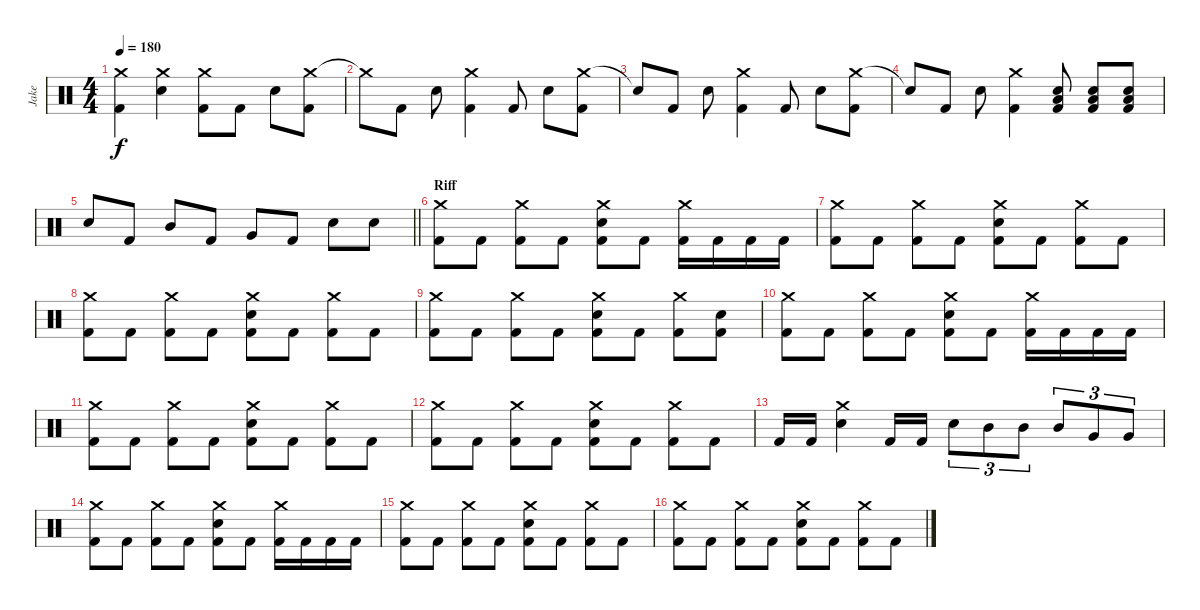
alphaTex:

\track ("Jake" "Jake") {instrument percussion}
\staff {score}
\articulation defaults
\ts (4 4)
\tempo 180
\clef neutral
\ks c
("Crash medium (hit)" "Kick (hit) 2").4{dy f} ("Crash medium (hit)" "Electric Snare (hit)").4 ("Crash medium (hit)" "Kick (hit) 2").8 "Kick (hit) 2".8 "Electric Snare (hit)".8 ("Crash medium (hit)" "Kick (hit) 2").8 |
"Crash medium (hit)"{t}.8 "Kick (hit) 2".8 "Electric Snare (hit)".8 ("Crash medium (hit)" "Kick (hit) 2").4 "Kick (hit) 2".8 "Electric Snare (hit)".8 ("Crash medium (hit)" "Kick (hit) 2").8 |
"Snare (hit)"{t}.8 "Kick (hit) 2".8 "Electric Snare (hit)".8 ("Crash medium (hit)" "Kick (hit) 2").4 "Kick (hit) 2".8 "Electric Snare (hit)".8 ("Crash medium (hit)" "Kick (hit) 2").8 |
"Snare (hit)"{t}.8 "Kick (hit) 2".8 "Electric Snare (hit)".8 ("Crash medium (hit)" "Kick (hit) 2").4 ("Electric Snare (hit)" "Low Floor Tom (hit)" "Kick (hit) 2").8 ("Electric Snare (hit)" "Low Floor Tom (hit)" "Kick (hit) 2").8 ("Electric Snare (hit)" "Low Floor Tom (hit)" "Kick (hit) 2").8 |
\barLineRight lightlight "Electric Snare (hit)".8 "Kick (hit) 2".8 "Mid Tom (hit)".8 "Kick (hit) 2".8 "Very Low Tom (hit)".8 "Kick (hit) 2".8 "Electric Snare (hit)".8 "Electric Snare (hit)".8
|
\section ("" "Riff")
("Crash medium (hit)" "Kick (hit) 2").8 "Kick (hit) 2".8 ("Crash medium (hit)" "Kick (hit) 2").8 "Kick (hit) 2".8 ("Crash medium (hit)" "Electric Snare (hit)" "Kick (hit) 2").8 "Kick (hit) 2".8 ("Crash medium (hit)" "Kick (hit) 2").16 "Kick (hit) 2".16 "Kick (hit) 2".16 "Kick (hit) 2".16 |
("Crash medium (hit)" "Kick (hit) 2").8 "Kick (hit) 2".8 ("Crash medium (hit)" "Kick (hit) 2").8 "Kick (hit) 2".8 ("Crash medium (hit)" "Electric Snare (hit)" "Kick (hit) 2").8 "Kick (hit) 2".8 ("Crash medium (hit)" "Kick (hit) 2").8 "Kick (hit) 2".8 |
("Crash medium (hit)" "Kick (hit) 2").8 "Kick (hit) 2".8 ("Crash medium (hit)" "Kick (hit) 2").8 "Kick (hit) 2".8 ("Crash medium (hit)" "Electric Snare (hit)" "Kick (hit) 2").8 "Kick (hit) 2".8 ("Crash medium (hit)" "Kick (hit) 2").8 "Kick (hit) 2".8 |
("Crash medium (hit)" "Kick (hit) 2").8 "Kick (hit) 2".8 ("Crash medium (hit)" "Kick (hit) 2").8 "Kick (hit) 2".8 ("Crash medium (hit)" "Electric Snare (hit)" "Kick (hit) 2").8 "Kick (hit) 2".8 ("Crash medium (hit)" "Kick (hit) 2").8 ("Electric Snare (hit)" "Kick (hit) 2").8 |
("Crash medium (hit)" "Kick (hit) 2").8 "Kick (hit) 2".8 ("Crash medium (hit)" "Kick (hit) 2").8 "Kick (hit) 2".8 ("Crash medium (hit)" "Electric Snare (hit)" "Kick (hit) 2").8 "Kick (hit) 2".8 ("Crash medium (hit)" "Kick (hit) 2").16 "Kick (hit) 2".16 "Kick (hit) 2".16 "Kick (hit) 2".16 |
("Crash medium (hit)" "Kick (hit) 2").8 "Kick (hit) 2".8 ("Crash medium (hit)" "Kick (hit) 2").8 "Kick (hit) 2".8 ("Crash medium (hit)" "Electric Snare (hit)" "Kick (hit) 2").8 "Kick (hit) 2".8 ("Crash medium (hit)" "Kick (hit) 2").8 "Kick (hit) 2".8 |
("Crash medium (hit)" "Kick (hit) 2").8 "Kick (hit) 2".8 ("Crash medium (hit)" "Kick (hit) 2").8 "Kick (hit) 2".8 ("Crash medium (hit)" "Electric Snare (hit)" "Kick (hit) 2").8 "Kick (hit) 2".8 ("Crash medium (hit)" "Kick (hit) 2").8 "Kick (hit) 2".8 |
"Kick (hit) 2".16 "Kick (hit) 2".16 ("Crash medium (hit)" "Electric Snare (hit)").4 "Kick (hit) 2".16 "Kick (hit) 2".16 "Electric Snare (hit)".8{tu (3 2)} "Mid Tom (hit)".8{tu (3 2)} "Mid Tom (hit)".8{tu (3 2)} "Mid Tom (hit)".8{tu (3 2)} "Very Low Tom (hit)".8{tu (3 2)} "Very Low Tom (hit)".8{tu (3 2)} |
("Crash medium (hit)" "Kick (hit) 2").8 "Kick (hit) 2".8 ("Crash medium (hit)" "Kick (hit) 2").8 "Kick (hit) 2".8 ("Crash medium (hit)" "Electric Snare (hit)" "Kick (hit) 2").8 "Kick (hit) 2".8 ("Crash medium (hit)" "Kick (hit) 2").16 "Kick (hit) 2".16 "Kick (hit) 2".16 "Kick (hit) 2".16 |
("Crash medium (hit)" "Kick (hit) 2").8 "Kick (hit) 2".8 ("Crash medium (hit)" "Kick (hit) 2").8 "Kick (hit) 2".8 ("Crash medium (hit)" "Electric Snare (hit)" "Kick (hit) 2").8 "Kick (hit) 2".8 ("Crash medium (hit)" "Kick (hit) 2").8 "Kick (hit) 2".8 |
("Crash medium (hit)" "Kick (hit) 2").8 "Kick (hit) 2".8 ("Crash medium (hit)" "Kick (hit) 2").8 "Kick (hit) 2".8 ("Crash medium (hit)" "Electric Snare (hit)" "Kick (hit) 2").8 "Kick (hit) 2".8 ("Crash medium (hit)" "Kick (hit) 2").8 "Kick (hit) 2".8
